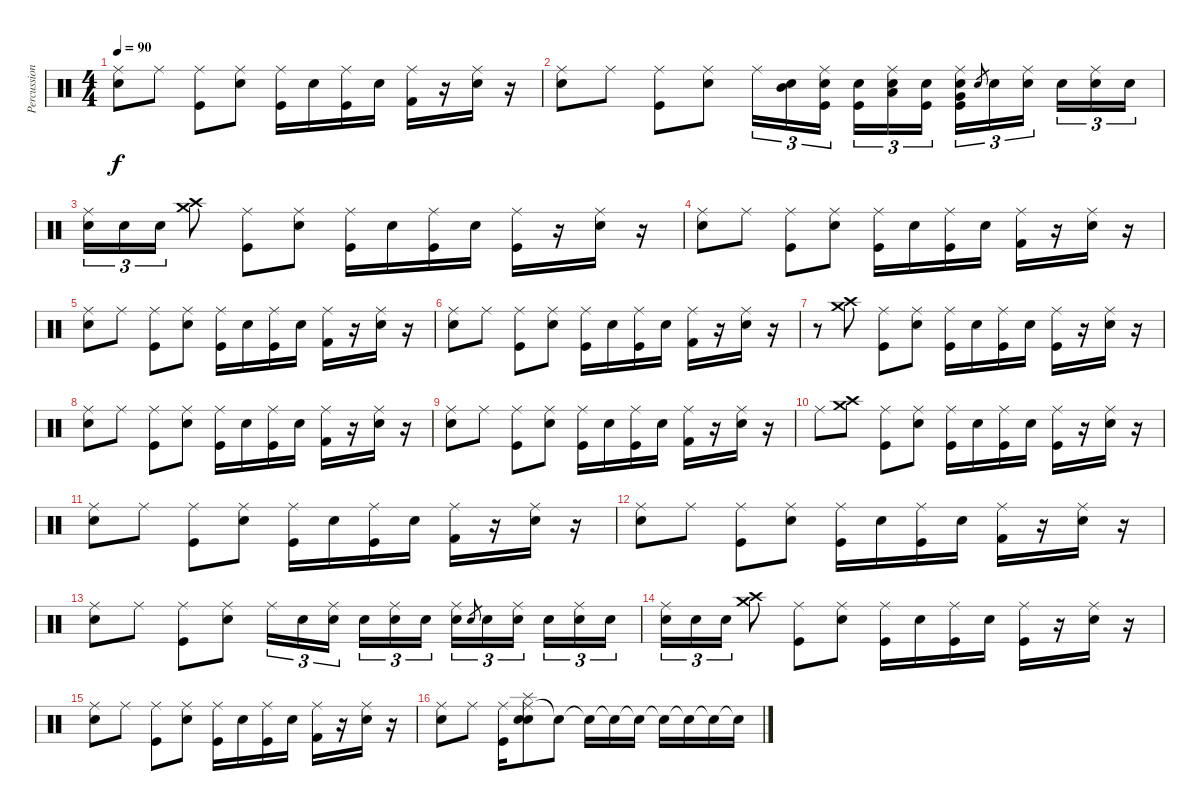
\track ("Percussions" "Percussion") {instrument percussion}
\staff {score}
\articulation defaults
\ts (4 4)
\tempo 90
\clef neutral
\ks c
("Ride (middle)" "Electric Snare (hit)"{tr (40 16)}).8{dy f} "Ride (middle)".8 ("Ride (middle)" "Kick (hit)").8 ("Ride (middle)" "Electric Snare (hit)").8 ("Ride (middle)" "Kick (hit)").16 "Electric Snare (hit)".16 ("Ride (middle)" "Kick (hit)").16 "Electric Snare (hit)".16 ("Ride (middle)" "Kick (hit) 2").16 r.16 ("Ride (middle)" "Electric Snare (hit)").16 r.16 |
("Ride (middle)" "Electric Snare (hit)"{tr (40 16)}).8 "Ride (middle)".8 ("Ride (middle)" "Kick (hit)").8 ("Ride (middle)" "Electric Snare (hit)").8 "Ride (middle)".16{tu (3 2)} ("Mid Tom (hit)" "Electric Snare (hit)").16{tu (3 2)} ("Ride (middle)" "Electric Snare (hit)" "Kick (hit)").16{tu (3 2)} ("Electric Snare (hit)" "Kick (hit)").16{tu (3 2)} ("Ride (middle)" "Low Tom (hit)" "Electric Snare (hit)").16{tu (3 2)} ("Electric Snare (hit)" "Kick (hit)").16{tu (3 2)} ("Ride (middle)" "Very Low Tom (hit)" "Electric Snare (hit)" "Kick (hit)").16{tu (3 2)} "Electric Snare (hit)".8{gr} "Electric Snare (hit)".16{tu (3 2)} ("Ride (middle)" "Electric Snare (hit)").16{tu (3 2)} "Electric Snare (hit)".16{tu (3 2)} ("Ride (middle)" "Electric Snare (hit)").16{tu (3 2)} "Electric Snare (hit)".16{tu (3 2)} |
("Ride (middle)" "Electric Snare (hit)").16{tu (3 2)} "Electric Snare (hit)".16{tu (3 2)} "Electric Snare (hit)".16{tu (3 2) volume 14} ("Crash medium (hit)" "Crash high (hit)").8 ("Ride (middle)" "Kick (hit)").8 ("Ride (middle)" "Electric Snare (hit)").8 ("Ride (middle)" "Kick (hit)").16 "Electric Snare (hit)".16 ("Ride (middle)" "Kick (hit)").16 "Electric Snare (hit)".16 ("Ride (middle)" "Kick (hit)").16 r.16 ("Ride (middle)" "Electric Snare (hit)").16 r.16 |
("Ride (middle)" "Electric Snare (hit)"{tr (40 16)}).8 "Ride (middle)".8 ("Ride (middle)" "Kick (hit)").8 ("Ride (middle)" "Electric Snare (hit)").8 ("Ride (middle)" "Kick (hit)").16 "Electric Snare (hit)".16 ("Ride (middle)" "Kick (hit)").16 "Electric Snare (hit)".16 ("Ride (middle)" "Kick (hit) 2").16 r.16 ("Ride (middle)" "Electric Snare (hit)").16 r.16 |
("Ride (middle)" "Electric Snare (hit)"{tr (40 16)}).8 "Ride (middle)".8 ("Ride (middle)" "Kick (hit)").8 ("Ride (middle)" "Electric Snare (hit)").8 ("Ride (middle)" "Kick (hit)").16 "Electric Snare (hit)".16 ("Ride (middle)" "Kick (hit)").16 "Electric Snare (hit)".16 ("Ride (middle)" "Kick (hit) 2").16 r.16 ("Ride (middle)" "Electric Snare (hit)").16 r.16 |
("Ride (middle)" "Electric Snare (hit)"{tr (40 16)}).8 "Ride (middle)".8 ("Ride (middle)" "Kick (hit)").8 ("Ride (middle)" "Electric Snare (hit)").8 ("Ride (middle)" "Kick (hit)").16 "Electric Snare (hit)".16 ("Ride (middle)" "Kick (hit)").16 "Electric Snare (hit)".16 ("Ride (middle)" "Kick (hit) 2").16 r.16 ("Ride (middle)" "Electric Snare (hit)").16 r.16 |
r.8{volume 14} ("Crash medium (hit)" "Crash high (hit)").8 ("Ride (middle)" "Kick (hit)").8 ("Ride (middle)" "Electric Snare (hit)").8 ("Ride (middle)" "Kick (hit)").16 "Electric Snare (hit)".16 ("Ride (middle)" "Kick (hit)").16 "Electric Snare (hit)".16 ("Ride (middle)" "Kick (hit)").16 r.16 ("Ride (middle)" "Electric Snare (hit)").16 r.16 |
("Ride (middle)" "Electric Snare (hit)"{tr (40 16)}).8 "Ride (middle)".8 ("Ride (middle)" "Kick (hit)").8 ("Ride (middle)" "Electric Snare (hit)").8 ("Ride (middle)" "Kick (hit)").16 "Electric Snare (hit)".16 ("Ride (middle)" "Kick (hit)").16 "Electric Snare (hit)".16 ("Ride (middle)" "Kick (hit) 2").16 r.16 ("Ride (middle)" "Electric Snare (hit)").16 r.16 |
("Ride (middle)" "Electric Snare (hit)"{tr (40 16)}).8 "Ride (middle)".8 ("Ride (middle)" "Kick (hit)").8 ("Ride (middle)" "Electric Snare (hit)").8 ("Ride (middle)" "Kick (hit)").16 "Electric Snare (hit)".16 ("Ride (middle)" "Kick (hit)").16 "Electric Snare (hit)".16 ("Ride (middle)" "Kick (hit) 2").16 r.16 ("Ride (middle)" "Electric Snare (hit)").16 r.16 |
"Ride (middle)".8{volume 14} ("Crash medium (hit)" "Crash high (hit)").8 ("Ride (middle)" "Kick (hit)").8 ("Ride (middle)" "Electric Snare (hit)").8 ("Ride (middle)" "Kick (hit)").16 "Electric Snare (hit)".16 ("Ride (middle)" "Kick (hit)").16 "Electric Snare (hit)".16 ("Ride (middle)" "Kick (hit)").16 r.16 ("Ride (middle)" "Electric Snare (hit)").16 r.16 |
("Ride (middle)" "Electric Snare (hit)"{tr (40 16)}).8 "Ride (middle)".8 ("Ride (middle)" "Kick (hit)").8 ("Ride (middle)" "Electric Snare (hit)").8 ("Ride (middle)" "Kick (hit)").16 "Electric Snare (hit)".16 ("Ride (middle)" "Kick (hit)").16 "Electric Snare (hit)".16 ("Ride (middle)" "Kick (hit) 2").16 r.16 ("Ride (middle)" "Electric Snare (hit)").16 r.16 |
("Ride (middle)" "Electric Snare (hit)"{tr (40 16)}).8 "Ride (middle)".8 ("Ride (middle)" "Kick (hit)").8 ("Ride (middle)" "Electric Snare (hit)").8 ("Ride (middle)" "Kick (hit)").16 "Electric Snare (hit)".16 ("Ride (middle)" "Kick (hit)").16 "Electric Snare (hit)".16 ("Ride (middle)" "Kick (hit) 2").16 r.16 ("Ride (middle)" "Electric Snare (hit)").16 r.16 |
("Ride (middle)" "Electric Snare (hit)"{tr (40 16)}).8 "Ride (middle)".8 ("Ride (middle)" "Kick (hit)").8 ("Ride (middle)" "Electric Snare (hit)").8 "Ride (middle)".16{tu (3 2)} "Electric Snare (hit)".16{tu (3 2)} ("Ride (middle)" "Electric Snare (hit)").16{tu (3 2)} "Electric Snare (hit)".16{tu (3 2)} ("Ride (middle)" "Electric Snare (hit)").16{tu (3 2)} "Electric Snare (hit)".16{tu (3 2)} ("Ride (middle)" "Electric Snare (hit)").16{tu (3 2)} "Electric Snare (hit)".8{gr} "Electric Snare (hit)".16{tu (3 2)} ("Ride (middle)" "Electric Snare (hit)").16{tu (3 2)} "Electric Snare (hit)".16{tu (3 2)} ("Ride (middle)" "Electric Snare (hit)").16{tu (3 2)} "Electric Snare (hit)".16{tu (3 2)} |
("Ride (middle)" "Electric Snare (hit)").16{tu (3 2)} "Electric Snare (hit)".16{tu (3 2)} "Electric Snare (hit)".16{tu (3 2) volume 14} ("Crash medium (hit)" "Crash high (hit)").8 ("Ride (middle)" "Kick (hit)").8 ("Ride (middle)" "Electric Snare (hit)").8 ("Ride (middle)" "Kick (hit)").16 "Electric Snare (hit)".16 ("Ride (middle)" "Kick (hit)").16 "Electric Snare (hit)".16 ("Ride (middle)" "Kick (hit)").16 r.16 ("Ride (middle)" "Electric Snare (hit)").16 r.16 |
("Ride (middle)" "Electric Snare (hit)"{tr (40 16)}).8 "Ride (middle)".8 ("Ride (middle)" "Kick (hit)").8 ("Ride (middle)" "Electric Snare (hit)").8 ("Ride (middle)" "Kick (hit)").16 "Electric Snare (hit)".16 ("Ride (middle)" "Kick (hit)").16 "Electric Snare (hit)".16 ("Ride (middle)" "Kick (hit) 2").16 r.16 ("Ride (middle)" "Electric Snare (hit)").16 r.16 |
("Ride (middle)" "Electric Snare (hit)"{tr (40 16)}).8 "Ride (middle)".8 ("Ride (middle)" "Kick (hit)").16 ("Ride (middle)" "Splash (hit)" "Electric Snare (hit)" "Electric Snare (hit)").8 "Snare (hit)"{t}.8 "Snare (hit)"{t}.16 "Snare (hit)"{t}.16 "Snare (hit)"{t}.16 "Snare (hit)"{t}.16 "Snare (hit)"{t}.16 "Snare (hit)"{t}.16 "Snare (hit)"{t}.16
